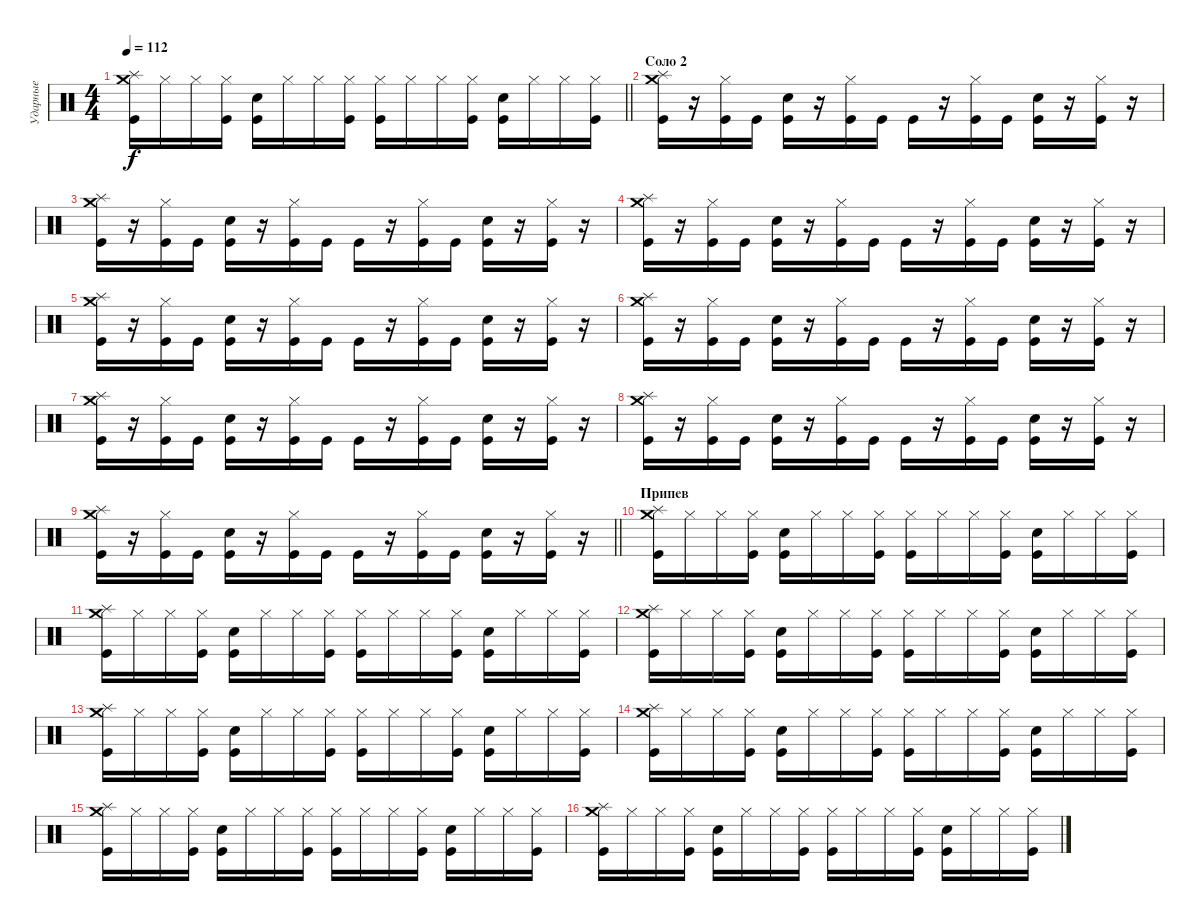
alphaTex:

\track ("Ударные" "Ударные") {instrument percussion}
\staff {score}
\articulation defaults
\ts (4 4)
\tempo 112
\clef neutral
\barLineRight lightlight
\ks c
("Splash (hit)" "Crash medium (hit)" "Kick (hit)").16{dy f} "Hi-Hat (closed)".16 "Hi-Hat (closed)".16 ("Hi-Hat (closed)" "Kick (hit)").16 ("Snare (hit) 2" "Kick (hit)").16 "Hi-Hat (closed)".16 "Hi-Hat (closed)".16 ("Hi-Hat (closed)" "Kick (hit)").16 ("Hi-Hat (closed)" "Kick (hit)").16 "Hi-Hat (closed)".16 "Hi-Hat (closed)".16 ("Hi-Hat (closed)" "Kick (hit)").16 ("Snare (hit) 2" "Kick (hit)").16 "Hi-Hat (closed)".16 "Hi-Hat (closed)".16 ("Hi-Hat (closed)" "Kick (hit)").16 |
\section ("" "Соло 2")
("Splash (hit)" "Crash medium (hit)" "Kick (hit)").16 r.16 ("Hi-Hat (closed)" "Kick (hit)").16 "Kick (hit)".16 ("Snare (hit) 2" "Kick (hit)").16 r.16 ("Hi-Hat (closed)" "Kick (hit)").16 "Kick (hit)".16 "Kick (hit)".16 r.16 ("Hi-Hat (closed)" "Kick (hit)").16 "Kick (hit)".16 ("Snare (hit) 2" "Kick (hit)").16 r.16 ("Hi-Hat (closed)" "Kick (hit)").16 r.16 |
("Splash (hit)" "Crash medium (hit)" "Kick (hit)").16 r.16 ("Hi-Hat (closed)" "Kick (hit)").16 "Kick (hit)".16 ("Snare (hit) 2" "Kick (hit)").16 r.16 ("Hi-Hat (closed)" "Kick (hit)").16 "Kick (hit)".16 "Kick (hit)".16 r.16 ("Hi-Hat (closed)" "Kick (hit)").16 "Kick (hit)".16 ("Snare (hit) 2" "Kick (hit)").16 r.16 ("Hi-Hat (closed)" "Kick (hit)").16 r.16 |
("Splash (hit)" "Crash medium (hit)" "Kick (hit)").16 r.16 ("Hi-Hat (closed)" "Kick (hit)").16 "Kick (hit)".16 ("Snare (hit) 2" "Kick (hit)").16 r.16 ("Hi-Hat (closed)" "Kick (hit)").16 "Kick (hit)".16 "Kick (hit)".16 r.16 ("Hi-Hat (closed)" "Kick (hit)").16 "Kick (hit)".16 ("Snare (hit) 2" "Kick (hit)").16 r.16 ("Hi-Hat (closed)" "Kick (hit)").16 r.16 |
("Splash (hit)" "Crash medium (hit)" "Kick (hit)").16 r.16 ("Hi-Hat (closed)" "Kick (hit)").16 "Kick (hit)".16 ("Snare (hit) 2" "Kick (hit)").16 r.16 ("Hi-Hat (closed)" "Kick (hit)").16 "Kick (hit)".16 "Kick (hit)".16 r.16 ("Hi-Hat (closed)" "Kick (hit)").16 "Kick (hit)".16 ("Snare (hit) 2" "Kick (hit)").16 r.16 ("Hi-Hat (closed)" "Kick (hit)").16 r.16 |
("Splash (hit)" "Crash medium (hit)" "Kick (hit)").16 r.16 ("Hi-Hat (closed)" "Kick (hit)").16 "Kick (hit)".16 ("Snare (hit) 2" "Kick (hit)").16 r.16 ("Hi-Hat (closed)" "Kick (hit)").16 "Kick (hit)".16 "Kick (hit)".16 r.16 ("Hi-Hat (closed)" "Kick (hit)").16 "Kick (hit)".16 ("Snare (hit) 2" "Kick (hit)").16 r.16 ("Hi-Hat (closed)" "Kick (hit)").16 r.16 |
("Splash (hit)" "Crash medium (hit)" "Kick (hit)").16 r.16 ("Hi-Hat (closed)" "Kick (hit)").16 "Kick (hit)".16 ("Snare (hit) 2" "Kick (hit)").16 r.16 ("Hi-Hat (closed)" "Kick (hit)").16 "Kick (hit)".16 "Kick (hit)".16 r.16 ("Hi-Hat (closed)" "Kick (hit)").16 "Kick (hit)".16 ("Snare (hit) 2" "Kick (hit)").16 r.16 ("Hi-Hat (closed)" "Kick (hit)").16 r.16 |
("Splash (hit)" "Crash medium (hit)" "Kick (hit)").16 r.16 ("Hi-Hat (closed)" "Kick (hit)").16 "Kick (hit)".16 ("Snare (hit) 2" "Kick (hit)").16 r.16 ("Hi-Hat (closed)" "Kick (hit)").16 "Kick (hit)".16 "Kick (hit)".16 r.16 ("Hi-Hat (closed)" "Kick (hit)").16 "Kick (hit)".16 ("Snare (hit) 2" "Kick (hit)").16 r.16 ("Hi-Hat (closed)" "Kick (hit)").16 r.16 |
\barLineRight lightlight
("Splash (hit)" "Crash medium (hit)" "Kick (hit)").16 r.16 ("Hi-Hat (closed)" "Kick (hit)").16 "Kick (hit)".16 ("Snare (hit) 2" "Kick (hit)").16 r.16 ("Hi-Hat (closed)" "Kick (hit)").16 "Kick (hit)".16 "Kick (hit)".16 r.16 ("Hi-Hat (closed)" "Kick (hit)").16 "Kick (hit)".16 ("Snare (hit) 2" "Kick (hit)").16 r.16 ("Hi-Hat (closed)" "Kick (hit)").16 r.16 |
\section ("" "Припев")
("Splash (hit)" "Crash medium (hit)" "Kick (hit)").16 "Hi-Hat (closed)".16 "Hi-Hat (closed)".16 ("Hi-Hat (closed)" "Kick (hit)").16 ("Snare (hit) 2" "Kick (hit)").16 "Hi-Hat (closed)".16 "Hi-Hat (closed)".16 ("Hi-Hat (closed)" "Kick (hit)").16 ("Hi-Hat (closed)" "Kick (hit)").16 "Hi-Hat (closed)".16 "Hi-Hat (closed)".16 ("Hi-Hat (closed)" "Kick (hit)").16 ("Snare (hit) 2" "Kick (hit)").16 "Hi-Hat (closed)".16 "Hi-Hat (closed)".16 ("Hi-Hat (closed)" "Kick (hit)").16 |
("Splash (hit)" "Crash medium (hit)" "Kick (hit)").16 "Hi-Hat (closed)".16 "Hi-Hat (closed)".16 ("Hi-Hat (closed)" "Kick (hit)").16 ("Snare (hit) 2" "Kick (hit)").16 "Hi-Hat (closed)".16 "Hi-Hat (closed)".16 ("Hi-Hat (closed)" "Kick (hit)").16 ("Hi-Hat (closed)" "Kick (hit)").16 "Hi-Hat (closed)".16 "Hi-Hat (closed)".16 ("Hi-Hat (closed)" "Kick (hit)").16 ("Snare (hit) 2" "Kick (hit)").16 "Hi-Hat (closed)".16 "Hi-Hat (closed)".16 ("Hi-Hat (closed)" "Kick (hit)").16 |
("Splash (hit)" "Crash medium (hit)" "Kick (hit)").16 "Hi-Hat (closed)".16 "Hi-Hat (closed)".16 ("Hi-Hat (closed)" "Kick (hit)").16 ("Snare (hit) 2" "Kick (hit)").16 "Hi-Hat (closed)".16 "Hi-Hat (closed)".16 ("Hi-Hat (closed)" "Kick (hit)").16 ("Hi-Hat (closed)" "Kick (hit)").16 "Hi-Hat (closed)".16 "Hi-Hat (closed)".16 ("Hi-Hat (closed)" "Kick (hit)").16 ("Snare (hit) 2" "Kick (hit)").16 "Hi-Hat (closed)".16 "Hi-Hat (closed)".16 ("Hi-Hat (closed)" "Kick (hit)").16 |
("Splash (hit)" "Crash medium (hit)" "Kick (hit)").16 "Hi-Hat (closed)".16 "Hi-Hat (closed)".16 ("Hi-Hat (closed)" "Kick (hit)").16 ("Snare (hit) 2" "Kick (hit)").16 "Hi-Hat (closed)".16 "Hi-Hat (closed)".16 ("Hi-Hat (closed)" "Kick (hit)").16 ("Hi-Hat (closed)" "Kick (hit)").16 "Hi-Hat (closed)".16 "Hi-Hat (closed)".16 ("Hi-Hat (closed)" "Kick (hit)").16 ("Snare (hit) 2" "Kick (hit)").16 "Hi-Hat (closed)".16 "Hi-Hat (closed)".16 ("Hi-Hat (closed)" "Kick (hit)").16 |
("Splash (hit)" "Crash medium (hit)" "Kick (hit)").16 "Hi-Hat (closed)".16 "Hi-Hat (closed)".16 ("Hi-Hat (closed)" "Kick (hit)").16 ("Snare (hit) 2" "Kick (hit)").16 "Hi-Hat (closed)".16 "Hi-Hat (closed)".16 ("Hi-Hat (closed)" "Kick (hit)").16 ("Hi-Hat (closed)" "Kick (hit)").16 "Hi-Hat (closed)".16 "Hi-Hat (closed)".16 ("Hi-Hat (closed)" "Kick (hit)").16 ("Snare (hit) 2" "Kick (hit)").16 "Hi-Hat (closed)".16 "Hi-Hat (closed)".16 ("Hi-Hat (closed)" "Kick (hit)").16 |
("Splash (hit)" "Crash medium (hit)" "Kick (hit)").16 "Hi-Hat (closed)".16 "Hi-Hat (closed)".16 ("Hi-Hat (closed)" "Kick (hit)").16 ("Snare (hit) 2" "Kick (hit)").16 "Hi-Hat (closed)".16 "Hi-Hat (closed)".16 ("Hi-Hat (closed)" "Kick (hit)").16 ("Hi-Hat (closed)" "Kick (hit)").16 "Hi-Hat (closed)".16 "Hi-Hat (closed)".16 ("Hi-Hat (closed)" "Kick (hit)").16 ("Snare (hit) 2" "Kick (hit)").16 "Hi-Hat (closed)".16 "Hi-Hat (closed)".16 ("Hi-Hat (closed)" "Kick (hit)").16 |
("Splash (hit)" "Crash medium (hit)" "Kick (hit)").16 "Hi-Hat (closed)".16 "Hi-Hat (closed)".16 ("Hi-Hat (closed)" "Kick (hit)").16 ("Snare (hit) 2" "Kick (hit)").16 "Hi-Hat (closed)".16 "Hi-Hat (closed)".16 ("Hi-Hat (closed)" "Kick (hit)").16 ("Hi-Hat (closed)" "Kick (hit)").16 "Hi-Hat (closed)".16 "Hi-Hat (closed)".16 ("Hi-Hat (closed)" "Kick (hit)").16 ("Snare (hit) 2" "Kick (hit)").16 "Hi-Hat (closed)".16 "Hi-Hat (closed)".16 ("Hi-Hat (closed)" "Kick (hit)").16
